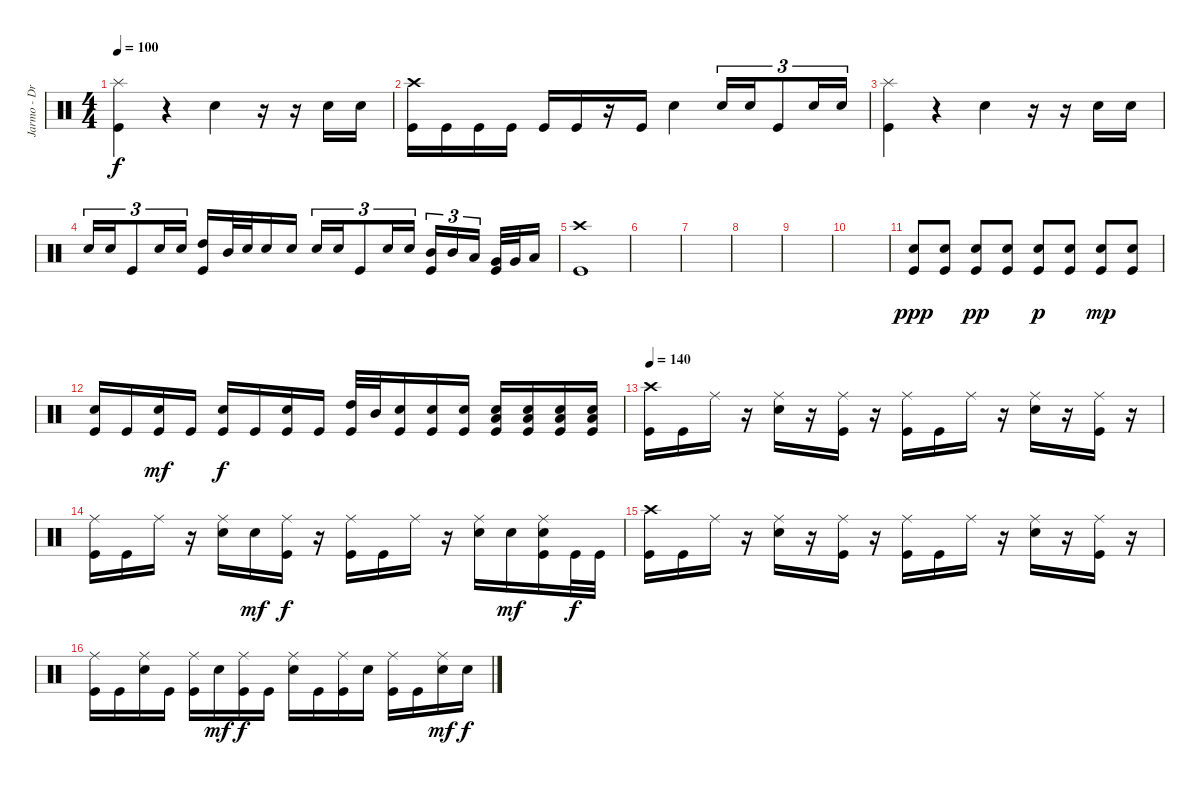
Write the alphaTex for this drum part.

\track ("Jarmo - Drums" "Jarmo - Dr") {instrument percussion}
\staff {score}
\articulation defaults
\ts (4 4)
\tempo 100
\clef neutral
\ks c
("Kick (hit)" "Splash (hit)").4{dy f} r.4 "Electric Snare (hit)".4 r.16 r.16 "Electric Snare (hit)".16 "Electric Snare (hit)".16 |
("Kick (hit)" "Crash high (hit)").16 "Kick (hit)".16 "Kick (hit)".16 "Kick (hit)".16 "Kick (hit)".16 "Kick (hit)".16 r.16 "Kick (hit)".16 "Electric Snare (hit)".4 "Electric Snare (hit)".16{tu (3 2)} "Electric Snare (hit)".16{tu (3 2)} "Kick (hit)".8{tu (3 2)} "Electric Snare (hit)".16{tu (3 2)} "Electric Snare (hit)".16{tu (3 2)} |
("Kick (hit)" "Splash (hit)").4 r.4 "Electric Snare (hit)".4 r.16 r.16 "Electric Snare (hit)".16 "Electric Snare (hit)".16 |
"Electric Snare (hit)".16{tu (3 2)} "Electric Snare (hit)".16{tu (3 2)} "Kick (hit)".8{tu (3 2)} "Electric Snare (hit)".16{tu (3 2)} "Electric Snare (hit)".16{tu (3 2)} ("Kick (hit)" "High Tom (hit)").16 "Mid Tom (hit)".32 "Electric Snare (hit)".32 "Electric Snare (hit)".16 "Electric Snare (hit)".16 "Electric Snare (hit)".16{tu (3 2)} "Electric Snare (hit)".16{tu (3 2)} "Kick (hit)".8{tu (3 2)} "Electric Snare (hit)".16{tu (3 2)} "Electric Snare (hit)".16{tu (3 2)} ("Kick (hit)" "Mid Tom (hit)").16{tu (3 2)} "Mid Tom (hit)".16{tu (3 2)} "Low Tom (hit)".16{tu (3 2)} ("Kick (hit)" "Very Low Tom (hit)").32 "Very Low Tom (hit)".32 "Low Floor Tom (hit)".16 |
("Kick (hit)" "Crash high (hit)").1 |
|
|
|
|
|
("Kick (hit)" "Electric Snare (hit)").8{dy ppp} ("Kick (hit)" "Electric Snare (hit)").8 ("Kick (hit)" "Electric Snare (hit)").8{dy pp} ("Kick (hit)" "Electric Snare (hit)").8 ("Kick (hit)" "Electric Snare (hit)").8{dy p} ("Kick (hit)" "Electric Snare (hit)").8 ("Kick (hit)" "Electric Snare (hit)").8{dy mp} ("Kick (hit)" "Electric Snare (hit)").8 |
("Kick (hit)" "Electric Snare (hit)").16 "Kick (hit)".16 ("Kick (hit)" "Electric Snare (hit)").16{dy mf} "Kick (hit)".16 ("Kick (hit)" "Electric Snare (hit)").16{dy f} "Kick (hit)".16 ("Kick (hit)" "Electric Snare (hit)").16 "Kick (hit)".16 ("Kick (hit)" "High Tom (hit)").32 "Mid Tom (hit)".32 ("Kick (hit)" "Electric Snare (hit)").16 ("Kick (hit)" "Electric Snare (hit)").16 ("Kick (hit)" "Electric Snare (hit)").16 ("Kick (hit)" "Electric Snare (hit)" "Low Tom (hit)").16 ("Kick (hit)" "Electric Snare (hit)" "Low Tom (hit)").16 ("Kick (hit)" "Electric Snare (hit)" "Low Tom (hit)").16 ("Kick (hit)" "Electric Snare (hit)" "Low Tom (hit)").16 |
\tempo 140
("Kick (hit)" "Crash high (hit)").16 "Kick (hit)".16 "Ride (middle)".16 r.16 ("Electric Snare (hit)" "Ride (middle)").16 r.16 ("Kick (hit)" "Ride (middle)").16 r.16 ("Kick (hit)" "Ride (middle)").16 "Kick (hit)".16 "Ride (middle)".16 r.16 ("Electric Snare (hit)" "Ride (middle)").16 r.16 ("Kick (hit)" "Ride (middle)").16 r.16 |
("Kick (hit)" "Ride (middle)").16 "Kick (hit)".16 "Ride (middle)".16 r.16 ("Electric Snare (hit)" "Ride (middle)").16 "Electric Snare (hit)".16{dy mf} ("Kick (hit)" "Ride (middle)").16{dy f} r.16 ("Kick (hit)" "Ride (middle)").16 "Kick (hit)".16 "Ride (middle)".16 r.16 ("Electric Snare (hit)" "Ride (middle)").16 "Electric Snare (hit)".16{dy mf} ("Kick (hit)" "Electric Snare (hit)" "Ride (middle)").16 "Kick (hit)".32{dy f} "Kick (hit)".32 |
("Kick (hit)" "Crash high (hit)").16 "Kick (hit)".16 "Ride (middle)".16 r.16 ("Electric Snare (hit)" "Ride (middle)").16 r.16 ("Kick (hit)" "Ride (middle)").16 r.16 ("Kick (hit)" "Ride (middle)").16 "Kick (hit)".16 "Ride (middle)".16 r.16 ("Electric Snare (hit)" "Ride (middle)").16 r.16 ("Kick (hit)" "Ride (middle)").16 r.16 |
("Kick (hit)" "Ride (middle)").16 "Kick (hit)".16 ("Electric Snare (hit)" "Ride (middle)").16 "Kick (hit)".16 ("Kick (hit)" "Ride (middle)").16 "Electric Snare (hit)".16{dy mf} ("Kick (hit)" "Ride (middle)").16{dy f} "Kick (hit)".16 ("Electric Snare (hit)" "Ride (middle)").16 "Kick (hit)".16 ("Kick (hit)" "Ride (middle)").16 "Electric Snare (hit)".16 ("Kick (hit)" "Ride (middle)").16 "Kick (hit)".16 ("Electric Snare (hit)" "Ride (middle)").16{dy mf} "Electric Snare (hit)".16{dy f}
